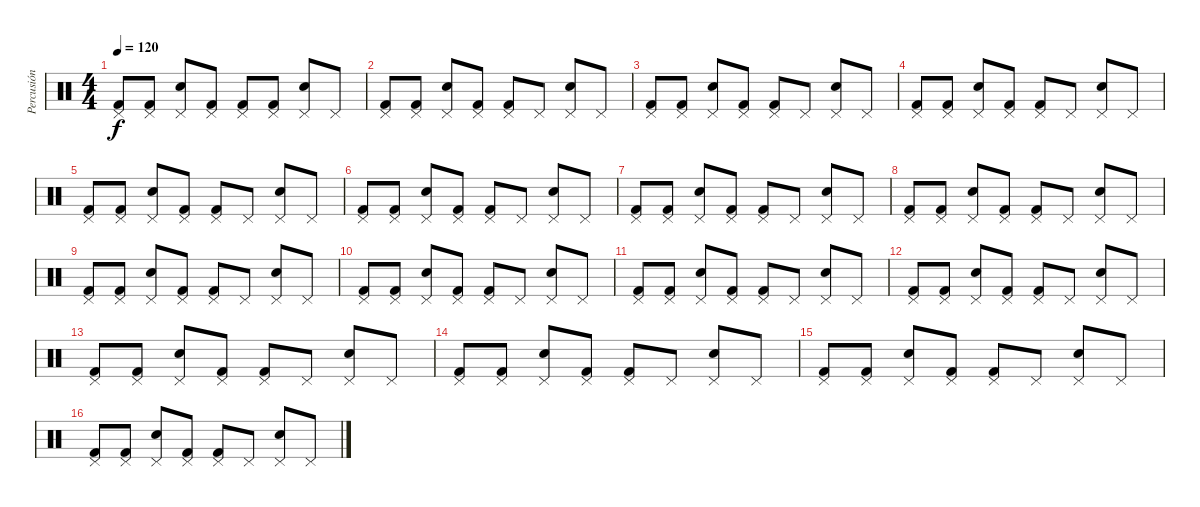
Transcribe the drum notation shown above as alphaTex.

\track ("Percusión" "Percusión") {instrument percussion}
\staff {score}
\articulation defaults
\ts (4 4)
\tempo 120
\clef neutral
\ks c
("Pedal Hi-Hat (hit)" "Kick (hit) 2").8{dy f} ("Pedal Hi-Hat (hit)" "Kick (hit) 2").8 ("Pedal Hi-Hat (hit)" "Electric Snare (hit)").8 ("Pedal Hi-Hat (hit)" "Kick (hit) 2").8 ("Pedal Hi-Hat (hit)" "Kick (hit) 2").8 ("Pedal Hi-Hat (hit)" "Kick (hit) 2").8 ("Pedal Hi-Hat (hit)" "Electric Snare (hit)").8 "Pedal Hi-Hat (hit)".8 |
("Pedal Hi-Hat (hit)" "Kick (hit) 2").8 ("Pedal Hi-Hat (hit)" "Kick (hit) 2").8 ("Pedal Hi-Hat (hit)" "Electric Snare (hit)").8 ("Pedal Hi-Hat (hit)" "Kick (hit) 2").8 ("Pedal Hi-Hat (hit)" "Kick (hit) 2").8 "Pedal Hi-Hat (hit)".8 ("Pedal Hi-Hat (hit)" "Snare (hit) 2").8 "Pedal Hi-Hat (hit)".8 |
("Pedal Hi-Hat (hit)" "Kick (hit) 2").8 ("Pedal Hi-Hat (hit)" "Kick (hit) 2").8 ("Pedal Hi-Hat (hit)" "Electric Snare (hit)").8 ("Pedal Hi-Hat (hit)" "Kick (hit) 2").8 ("Pedal Hi-Hat (hit)" "Kick (hit) 2").8 "Pedal Hi-Hat (hit)".8 ("Pedal Hi-Hat (hit)" "Snare (hit) 2").8 "Pedal Hi-Hat (hit)".8 |
("Pedal Hi-Hat (hit)" "Kick (hit) 2").8 ("Pedal Hi-Hat (hit)" "Kick (hit) 2").8 ("Pedal Hi-Hat (hit)" "Electric Snare (hit)").8 ("Pedal Hi-Hat (hit)" "Kick (hit) 2").8 ("Pedal Hi-Hat (hit)" "Kick (hit) 2").8 "Pedal Hi-Hat (hit)".8 ("Pedal Hi-Hat (hit)" "Snare (hit) 2").8 "Pedal Hi-Hat (hit)".8 |
("Pedal Hi-Hat (hit)" "Kick (hit) 2").8 ("Pedal Hi-Hat (hit)" "Kick (hit) 2").8 ("Pedal Hi-Hat (hit)" "Electric Snare (hit)").8 ("Pedal Hi-Hat (hit)" "Kick (hit) 2").8 ("Pedal Hi-Hat (hit)" "Kick (hit) 2").8 "Pedal Hi-Hat (hit)".8 ("Pedal Hi-Hat (hit)" "Snare (hit) 2").8 "Pedal Hi-Hat (hit)".8 |
("Pedal Hi-Hat (hit)" "Kick (hit) 2").8 ("Pedal Hi-Hat (hit)" "Kick (hit) 2").8 ("Pedal Hi-Hat (hit)" "Electric Snare (hit)").8 ("Pedal Hi-Hat (hit)" "Kick (hit) 2").8 ("Pedal Hi-Hat (hit)" "Kick (hit) 2").8 "Pedal Hi-Hat (hit)".8 ("Pedal Hi-Hat (hit)" "Snare (hit) 2").8 "Pedal Hi-Hat (hit)".8 |
("Pedal Hi-Hat (hit)" "Kick (hit) 2").8 ("Pedal Hi-Hat (hit)" "Kick (hit) 2").8 ("Pedal Hi-Hat (hit)" "Electric Snare (hit)").8 ("Pedal Hi-Hat (hit)" "Kick (hit) 2").8 ("Pedal Hi-Hat (hit)" "Kick (hit) 2").8 "Pedal Hi-Hat (hit)".8 ("Pedal Hi-Hat (hit)" "Snare (hit) 2").8 "Pedal Hi-Hat (hit)".8 |
("Pedal Hi-Hat (hit)" "Kick (hit) 2").8 ("Pedal Hi-Hat (hit)" "Kick (hit) 2").8 ("Pedal Hi-Hat (hit)" "Electric Snare (hit)").8 ("Pedal Hi-Hat (hit)" "Kick (hit) 2").8 ("Pedal Hi-Hat (hit)" "Kick (hit) 2").8 "Pedal Hi-Hat (hit)".8 ("Pedal Hi-Hat (hit)" "Snare (hit) 2").8 "Pedal Hi-Hat (hit)".8 |
("Pedal Hi-Hat (hit)" "Kick (hit) 2").8 ("Pedal Hi-Hat (hit)" "Kick (hit) 2").8 ("Pedal Hi-Hat (hit)" "Electric Snare (hit)").8 ("Pedal Hi-Hat (hit)" "Kick (hit) 2").8 ("Pedal Hi-Hat (hit)" "Kick (hit) 2").8 "Pedal Hi-Hat (hit)".8 ("Pedal Hi-Hat (hit)" "Snare (hit) 2").8 "Pedal Hi-Hat (hit)".8 |
("Pedal Hi-Hat (hit)" "Kick (hit) 2").8 ("Pedal Hi-Hat (hit)" "Kick (hit) 2").8 ("Pedal Hi-Hat (hit)" "Electric Snare (hit)").8 ("Pedal Hi-Hat (hit)" "Kick (hit) 2").8 ("Pedal Hi-Hat (hit)" "Kick (hit) 2").8 "Pedal Hi-Hat (hit)".8 ("Pedal Hi-Hat (hit)" "Snare (hit) 2").8 "Pedal Hi-Hat (hit)".8 |
("Pedal Hi-Hat (hit)" "Kick (hit) 2").8 ("Pedal Hi-Hat (hit)" "Kick (hit) 2").8 ("Pedal Hi-Hat (hit)" "Electric Snare (hit)").8 ("Pedal Hi-Hat (hit)" "Kick (hit) 2").8 ("Pedal Hi-Hat (hit)" "Kick (hit) 2").8 "Pedal Hi-Hat (hit)".8 ("Pedal Hi-Hat (hit)" "Snare (hit) 2").8 "Pedal Hi-Hat (hit)".8 |
("Pedal Hi-Hat (hit)" "Kick (hit) 2").8 ("Pedal Hi-Hat (hit)" "Kick (hit) 2").8 ("Pedal Hi-Hat (hit)" "Electric Snare (hit)").8 ("Pedal Hi-Hat (hit)" "Kick (hit) 2").8 ("Pedal Hi-Hat (hit)" "Kick (hit) 2").8 "Pedal Hi-Hat (hit)".8 ("Pedal Hi-Hat (hit)" "Snare (hit) 2").8 "Pedal Hi-Hat (hit)".8 |
("Pedal Hi-Hat (hit)" "Kick (hit) 2").8 ("Pedal Hi-Hat (hit)" "Kick (hit) 2").8 ("Pedal Hi-Hat (hit)" "Electric Snare (hit)").8 ("Pedal Hi-Hat (hit)" "Kick (hit) 2").8 ("Pedal Hi-Hat (hit)" "Kick (hit) 2").8 "Pedal Hi-Hat (hit)".8 ("Pedal Hi-Hat (hit)" "Snare (hit) 2").8 "Pedal Hi-Hat (hit)".8 |
("Pedal Hi-Hat (hit)" "Kick (hit) 2").8 ("Pedal Hi-Hat (hit)" "Kick (hit) 2").8 ("Pedal Hi-Hat (hit)" "Electric Snare (hit)").8 ("Pedal Hi-Hat (hit)" "Kick (hit) 2").8 ("Pedal Hi-Hat (hit)" "Kick (hit) 2").8 "Pedal Hi-Hat (hit)".8 ("Pedal Hi-Hat (hit)" "Snare (hit) 2").8 "Pedal Hi-Hat (hit)".8 |
("Pedal Hi-Hat (hit)" "Kick (hit) 2").8 ("Pedal Hi-Hat (hit)" "Kick (hit) 2").8 ("Pedal Hi-Hat (hit)" "Electric Snare (hit)").8 ("Pedal Hi-Hat (hit)" "Kick (hit) 2").8 ("Pedal Hi-Hat (hit)" "Kick (hit) 2").8 "Pedal Hi-Hat (hit)".8 ("Pedal Hi-Hat (hit)" "Snare (hit) 2").8 "Pedal Hi-Hat (hit)".8 |
("Pedal Hi-Hat (hit)" "Kick (hit) 2").8 ("Pedal Hi-Hat (hit)" "Kick (hit) 2").8 ("Pedal Hi-Hat (hit)" "Electric Snare (hit)").8 ("Pedal Hi-Hat (hit)" "Kick (hit) 2").8 ("Pedal Hi-Hat (hit)" "Kick (hit) 2").8 "Pedal Hi-Hat (hit)".8 ("Pedal Hi-Hat (hit)" "Snare (hit) 2").8 "Pedal Hi-Hat (hit)".8
